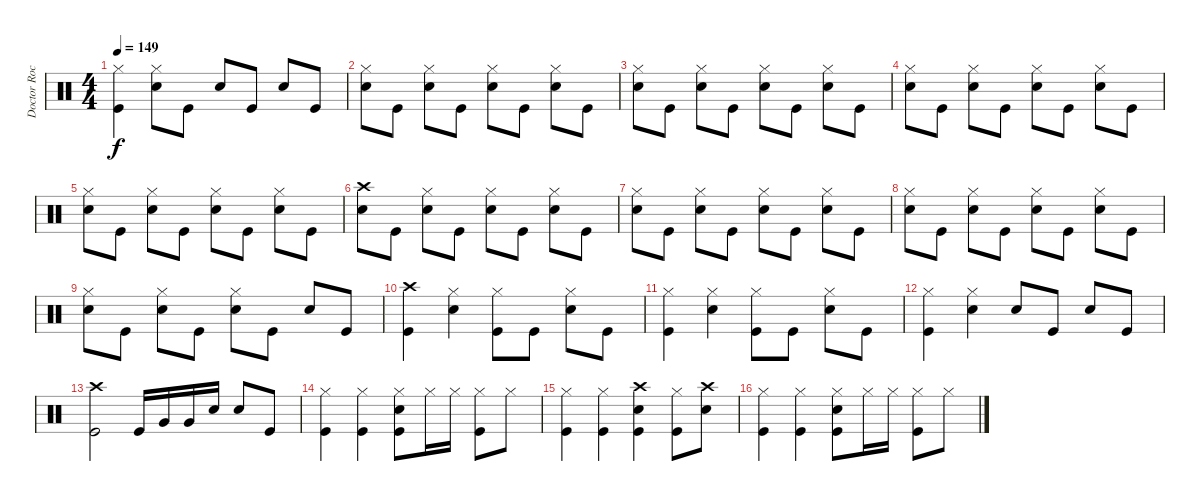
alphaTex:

\track ("Doctor Rock" "Doctor Roc") {instrument percussion}
\staff {score}
\articulation defaults
\ts (4 4)
\tempo 149
\clef neutral
\ks c
("Hi-Hat (closed)" "Kick (hit)").4{dy f} ("Hi-Hat (closed)" "Snare (hit) 2").8 "Kick (hit)".8 "Snare (hit) 2".8 "Kick (hit)".8 "Snare (hit) 2".8 "Kick (hit)".8 |
("Hi-Hat (closed)" "Snare (hit) 2").8 "Kick (hit)".8 ("Hi-Hat (closed)" "Snare (hit) 2").8 "Kick (hit)".8 ("Hi-Hat (closed)" "Snare (hit) 2").8 "Kick (hit)".8 ("Hi-Hat (closed)" "Snare (hit) 2").8 "Kick (hit)".8 |
("Hi-Hat (closed)" "Snare (hit) 2").8 "Kick (hit)".8 ("Hi-Hat (closed)" "Snare (hit) 2").8 "Kick (hit)".8 ("Hi-Hat (closed)" "Snare (hit) 2").8 "Kick (hit)".8 ("Hi-Hat (closed)" "Snare (hit) 2").8 "Kick (hit)".8 |
("Hi-Hat (closed)" "Snare (hit) 2").8 "Kick (hit)".8 ("Hi-Hat (closed)" "Snare (hit) 2").8 "Kick (hit)".8 ("Hi-Hat (closed)" "Snare (hit) 2").8 "Kick (hit)".8 ("Hi-Hat (closed)" "Snare (hit) 2").8 "Kick (hit)".8 |
("Hi-Hat (closed)" "Snare (hit) 2").8 "Kick (hit)".8 ("Hi-Hat (closed)" "Snare (hit) 2").8 "Kick (hit)".8 ("Hi-Hat (closed)" "Snare (hit) 2").8 "Kick (hit)".8 ("Hi-Hat (closed)" "Snare (hit) 2").8 "Kick (hit)".8 |
("Crash high (hit)" "Snare (hit) 2").8 "Kick (hit)".8 ("Hi-Hat (closed)" "Snare (hit) 2").8 "Kick (hit)".8 ("Hi-Hat (closed)" "Snare (hit) 2").8 "Kick (hit)".8 ("Hi-Hat (closed)" "Snare (hit) 2").8 "Kick (hit)".8 |
("Hi-Hat (closed)" "Snare (hit) 2").8 "Kick (hit)".8 ("Hi-Hat (closed)" "Snare (hit) 2").8 "Kick (hit)".8 ("Hi-Hat (closed)" "Snare (hit) 2").8 "Kick (hit)".8 ("Hi-Hat (closed)" "Snare (hit) 2").8 "Kick (hit)".8 |
("Hi-Hat (closed)" "Snare (hit) 2").8 "Kick (hit)".8 ("Hi-Hat (closed)" "Snare (hit) 2").8 "Kick (hit)".8 ("Hi-Hat (closed)" "Snare (hit) 2").8 "Kick (hit)".8 ("Hi-Hat (closed)" "Snare (hit) 2").8 "Kick (hit)".8 |
("Hi-Hat (closed)" "Snare (hit) 2").8 "Kick (hit)".8 ("Hi-Hat (closed)" "Snare (hit) 2").8 "Kick (hit)".8 ("Hi-Hat (closed)" "Snare (hit) 2").8 "Kick (hit)".8 "Snare (hit) 2".8 "Kick (hit)".8 |
("Crash high (hit)" "Kick (hit)").4 ("Hi-Hat (closed)" "Snare (hit) 2").4 ("Hi-Hat (closed)" "Kick (hit)").8 "Kick (hit)".8 ("Hi-Hat (closed)" "Snare (hit) 2").8 "Kick (hit)".8 |
("Hi-Hat (closed)" "Kick (hit)").4 ("Hi-Hat (closed)" "Snare (hit) 2").4 ("Hi-Hat (closed)" "Kick (hit)").8 "Kick (hit)".8 ("Hi-Hat (closed)" "Snare (hit) 2").8 "Kick (hit)".8 |
("Hi-Hat (closed)" "Kick (hit)").4 ("Hi-Hat (closed)" "Snare (hit) 2").4 "Snare (hit) 2".8 "Kick (hit)".8 "Snare (hit) 2".8 "Kick (hit)".8 |
("Crash high (hit)" "Kick (hit)").2 "Kick (hit)".16 "Very Low Tom (hit)".16 "Very Low Tom (hit)".16 "Snare (hit) 2".16 "Snare (hit) 2".8 "Kick (hit)".8 |
("Hi-Hat (closed)" "Kick (hit)").4 ("Hi-Hat (closed)" "Kick (hit)").4 ("Hi-Hat (closed)" "Snare (hit) 2" "Kick (hit)").8 "Hi-Hat (closed)".16 "Hi-Hat (closed)".16 ("Hi-Hat (closed)" "Kick (hit)").8 "Hi-Hat (closed)".8 |
("Hi-Hat (closed)" "Kick (hit)").4 ("Hi-Hat (closed)" "Kick (hit)").4 ("Crash high (hit)" "Snare (hit) 2" "Kick (hit)").4 ("Hi-Hat (closed)" "Kick (hit)").8 ("Crash high (hit)" "Snare (hit) 2").8 |
("Hi-Hat (closed)" "Kick (hit)").4 ("Hi-Hat (closed)" "Kick (hit)").4 ("Hi-Hat (closed)" "Snare (hit) 2" "Kick (hit)").8 "Hi-Hat (closed)".16 "Hi-Hat (closed)".16 ("Hi-Hat (closed)" "Kick (hit)").8 "Hi-Hat (closed)".8
